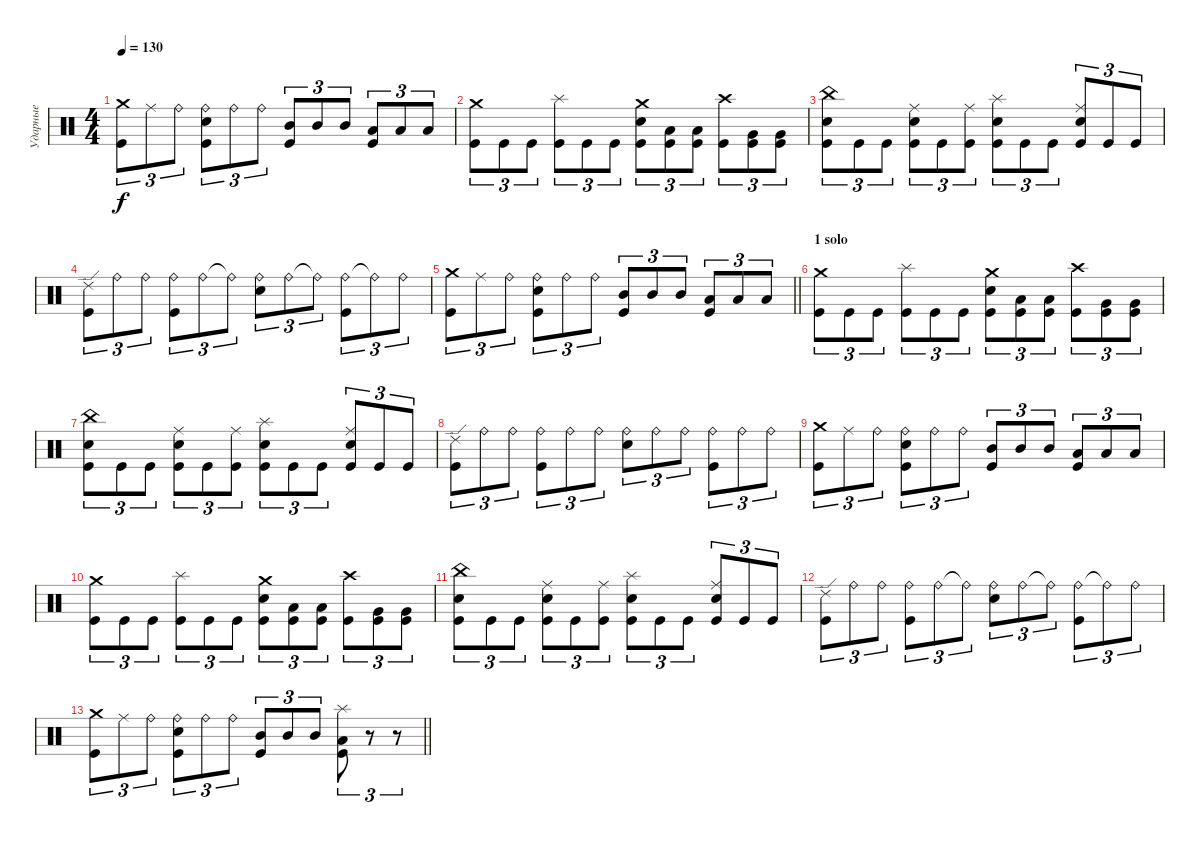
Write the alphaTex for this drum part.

\track ("Ударные" "Ударные") {instrument percussion}
\staff {score}
\articulation defaults
\ts (4 4)
\tempo 130
\clef neutral
\ks c
("Crash medium (hit)" "Kick (hit)").8{tu (3 2) dy f} "Ride (middle)".8{tu (3 2)} "Ride (bell)".8{tu (3 2)} ("Ride (bell)" "Electric Snare (hit)" "Kick (hit)").8{tu (3 2)} "Ride (bell)".8{tu (3 2)} "Ride (bell)".8{tu (3 2)} ("Mid Tom (hit)" "Kick (hit)").8{tu (3 2)} "Mid Tom (hit)".8{tu (3 2)} "Mid Tom (hit)".8{tu (3 2)} ("Low Tom (hit)" "Kick (hit)").8{tu (3 2)} "Low Tom (hit)".8{tu (3 2)} "Low Tom (hit)".8{tu (3 2)} |
("Crash medium (hit)" "Kick (hit)").8{tu (3 2)} "Kick (hit)".8{tu (3 2)} "Kick (hit)".8{tu (3 2)} ("Splash (hit)" "Kick (hit)").8{tu (3 2)} "Kick (hit)".8{tu (3 2)} "Kick (hit)".8{tu (3 2)} ("Crash medium (hit)" "Electric Snare (hit)" "Kick (hit)").8{tu (3 2)} ("Low Tom (hit)" "Kick (hit)").8{tu (3 2)} ("Low Tom (hit)" "Kick (hit)").8{tu (3 2)} ("Crash high (hit)" "Kick (hit)").8{tu (3 2)} ("Very Low Tom (hit)" "Kick (hit)").8{tu (3 2)} ("Very Low Tom (hit)" "Kick (hit)").8{tu (3 2)} |
("China (hit)" "Electric Snare (hit)" "Kick (hit)").8{tu (3 2)} "Kick (hit)".8{tu (3 2)} "Kick (hit)".8{tu (3 2)} ("Ride (middle)" "Electric Snare (hit)" "Kick (hit)").8{tu (3 2)} "Kick (hit)".8{tu (3 2)} ("Ride (middle)" "Kick (hit)").8{tu (3 2)} ("Splash (hit)" "Electric Snare (hit)" "Kick (hit)").8{tu (3 2)} "Kick (hit)".8{tu (3 2)} "Kick (hit)".8{tu (3 2)} ("Ride (middle)" "Electric Snare (hit)" "Kick (hit)").8{tu (3 2)} "Kick (hit)".8{tu (3 2)} "Kick (hit)".8{tu (3 2)} |
("Ride (edge) 2" "Kick (hit)").8{tu (3 2)} "Ride (bell)".8{tu (3 2)} "Ride (bell)".8{tu (3 2)} ("Ride (bell)" "Kick (hit)").8{tu (3 2)} "Ride (bell)".8{tu (3 2)} "Ride (bell)"{t}.8{tu (3 2)} ("Ride (bell)" "Electric Snare (hit)").8{tu (3 2)} "Ride (bell)".8{tu (3 2)} "Ride (bell)"{t}.8{tu (3 2)} ("Ride (bell)" "Kick (hit)").8{tu (3 2)} "Ride (bell)"{t}.8{tu (3 2)} "Ride (bell)".8{tu (3 2)} |
\barLineRight lightlight
("Crash medium (hit)" "Kick (hit)").8{tu (3 2)} "Ride (middle)".8{tu (3 2)} "Ride (bell)".8{tu (3 2)} ("Ride (bell)" "Electric Snare (hit)" "Kick (hit)").8{tu (3 2)} "Ride (bell)".8{tu (3 2)} "Ride (bell)".8{tu (3 2)} ("Mid Tom (hit)" "Kick (hit)").8{tu (3 2)} "Mid Tom (hit)".8{tu (3 2)} "Mid Tom (hit)".8{tu (3 2)} ("Low Tom (hit)" "Kick (hit)").8{tu (3 2)} "Low Tom (hit)".8{tu (3 2)} "Low Tom (hit)".8{tu (3 2)} |
\section ("" "1 solo")
("Crash medium (hit)" "Kick (hit)").8{tu (3 2)} "Kick (hit)".8{tu (3 2)} "Kick (hit)".8{tu (3 2)} ("Splash (hit)" "Kick (hit)").8{tu (3 2)} "Kick (hit)".8{tu (3 2)} "Kick (hit)".8{tu (3 2)} ("Crash medium (hit)" "Electric Snare (hit)" "Kick (hit)").8{tu (3 2)} ("Low Tom (hit)" "Kick (hit)").8{tu (3 2)} ("Low Tom (hit)" "Kick (hit)").8{tu (3 2)} ("Crash high (hit)" "Kick (hit)").8{tu (3 2)} ("Very Low Tom (hit)" "Kick (hit)").8{tu (3 2)} ("Very Low Tom (hit)" "Kick (hit)").8{tu (3 2)} |
("China (hit)" "Electric Snare (hit)" "Kick (hit)").8{tu (3 2)} "Kick (hit)".8{tu (3 2)} "Kick (hit)".8{tu (3 2)} ("Ride (middle)" "Electric Snare (hit)" "Kick (hit)").8{tu (3 2)} "Kick (hit)".8{tu (3 2)} ("Ride (middle)" "Kick (hit)").8{tu (3 2)} ("Splash (hit)" "Electric Snare (hit)" "Kick (hit)").8{tu (3 2)} "Kick (hit)".8{tu (3 2)} "Kick (hit)".8{tu (3 2)} ("Ride (middle)" "Electric Snare (hit)" "Kick (hit)").8{tu (3 2)} "Kick (hit)".8{tu (3 2)} "Kick (hit)".8{tu (3 2)} |
("Ride (edge) 2" "Kick (hit)").8{tu (3 2)} "Ride (bell)".8{tu (3 2)} "Ride (bell)".8{tu (3 2)} ("Ride (bell)" "Kick (hit)").8{tu (3 2)} "Ride (bell)".8{tu (3 2)} "Ride (bell)".8{tu (3 2)} ("Ride (bell)" "Electric Snare (hit)").8{tu (3 2)} "Ride (bell)".8{tu (3 2)} "Ride (bell)".8{tu (3 2)} ("Ride (bell)" "Kick (hit)").8{tu (3 2)} "Ride (bell)".8{tu (3 2)} "Ride (bell)".8{tu (3 2)} |
("Crash medium (hit)" "Kick (hit)").8{tu (3 2)} "Ride (middle)".8{tu (3 2)} "Ride (bell)".8{tu (3 2)} ("Ride (bell)" "Electric Snare (hit)" "Kick (hit)").8{tu (3 2)} "Ride (bell)".8{tu (3 2)} "Ride (bell)".8{tu (3 2)} ("Mid Tom (hit)" "Kick (hit)").8{tu (3 2)} "Mid Tom (hit)".8{tu (3 2)} "Mid Tom (hit)".8{tu (3 2)} ("Low Tom (hit)" "Kick (hit)").8{tu (3 2)} "Low Tom (hit)".8{tu (3 2)} "Low Tom (hit)".8{tu (3 2)} |
("Crash medium (hit)" "Kick (hit)").8{tu (3 2)} "Kick (hit)".8{tu (3 2)} "Kick (hit)".8{tu (3 2)} ("Splash (hit)" "Kick (hit)").8{tu (3 2)} "Kick (hit)".8{tu (3 2)} "Kick (hit)".8{tu (3 2)} ("Crash medium (hit)" "Electric Snare (hit)" "Kick (hit)").8{tu (3 2)} ("Low Tom (hit)" "Kick (hit)").8{tu (3 2)} ("Low Tom (hit)" "Kick (hit)").8{tu (3 2)} ("Crash high (hit)" "Kick (hit)").8{tu (3 2)} ("Very Low Tom (hit)" "Kick (hit)").8{tu (3 2)} ("Very Low Tom (hit)" "Kick (hit)").8{tu (3 2)} |
("China (hit)" "Electric Snare (hit)" "Kick (hit)").8{tu (3 2)} "Kick (hit)".8{tu (3 2)} "Kick (hit)".8{tu (3 2)} ("Ride (middle)" "Electric Snare (hit)" "Kick (hit)").8{tu (3 2)} "Kick (hit)".8{tu (3 2)} ("Ride (middle)" "Kick (hit)").8{tu (3 2)} ("Splash (hit)" "Electric Snare (hit)" "Kick (hit)").8{tu (3 2)} "Kick (hit)".8{tu (3 2)} "Kick (hit)".8{tu (3 2)} ("Ride (middle)" "Electric Snare (hit)" "Kick (hit)").8{tu (3 2)} "Kick (hit)".8{tu (3 2)} "Kick (hit)".8{tu (3 2)} |
("Ride (edge) 2" "Kick (hit)").8{tu (3 2)} "Ride (bell)".8{tu (3 2)} "Ride (bell)".8{tu (3 2)} ("Ride (bell)" "Kick (hit)").8{tu (3 2)} "Ride (bell)".8{tu (3 2)} "Ride (bell)"{t}.8{tu (3 2)} ("Ride (bell)" "Electric Snare (hit)").8{tu (3 2)} "Ride (bell)".8{tu (3 2)} "Ride (bell)"{t}.8{tu (3 2)} ("Ride (bell)" "Kick (hit)").8{tu (3 2)} "Ride (bell)"{t}.8{tu (3 2)} "Ride (bell)".8{tu (3 2)} |
\barLineRight lightlight
("Crash medium (hit)" "Kick (hit)").8{tu (3 2)} "Ride (middle)".8{tu (3 2)} "Ride (bell)".8{tu (3 2)} ("Ride (bell)" "Electric Snare (hit)" "Kick (hit)").8{tu (3 2)} "Ride (bell)".8{tu (3 2)} "Ride (bell)".8{tu (3 2)} ("Mid Tom (hit)" "Kick (hit)").8{tu (3 2)} "Mid Tom (hit)".8{tu (3 2)} "Mid Tom (hit)".8{tu (3 2)} ("Splash (hit)" "Low Tom (hit)" "Kick (hit)").8{tu (3 2)} r.8{tu (3 2)} r.8{tu (3 2)}
